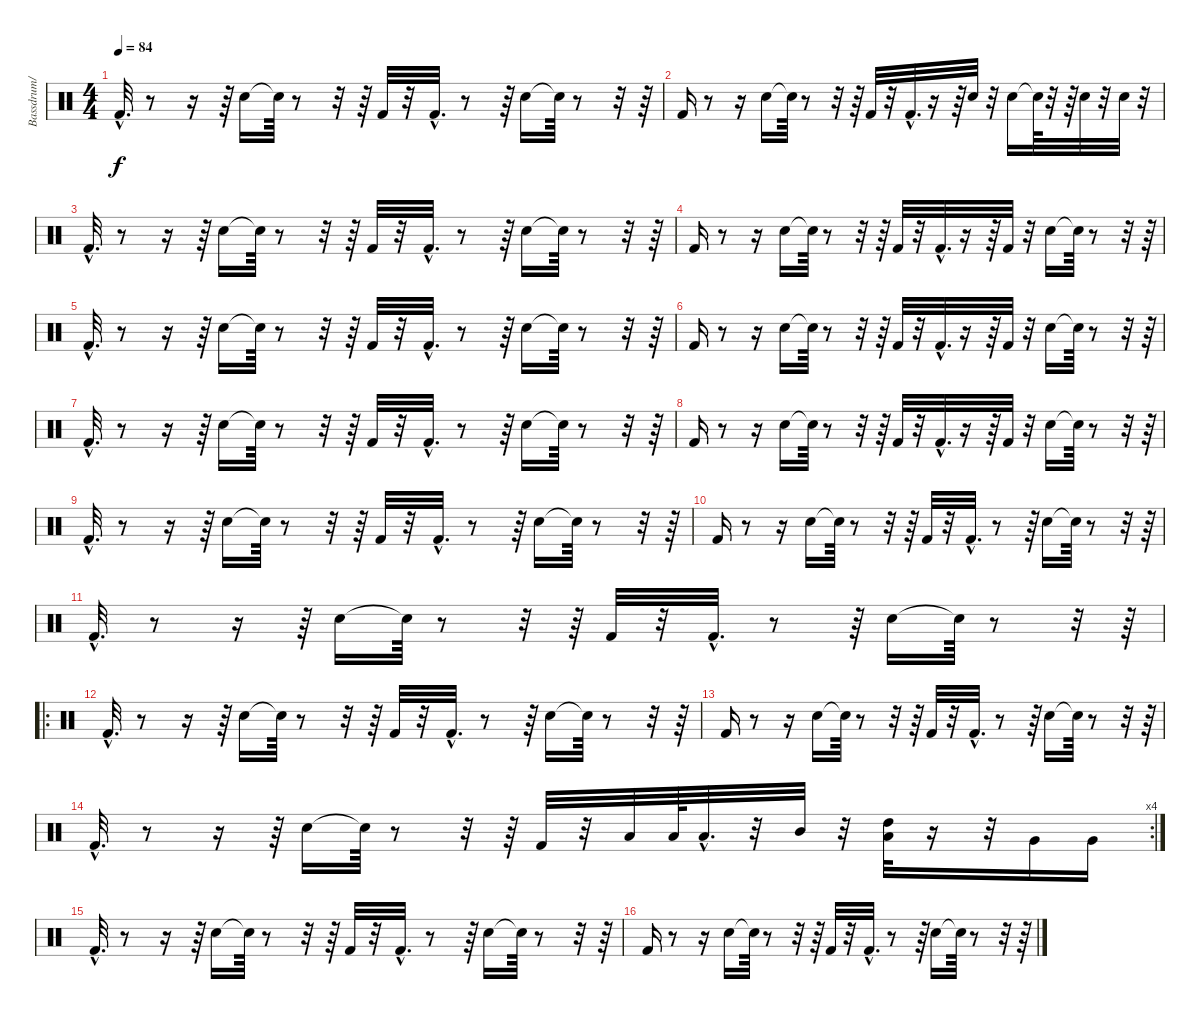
\track ("Bassdrum/" "Bassdrum/") {instrument percussion}
\staff {score}
\articulation defaults
\ts (4 4)
\tempo 84
\clef neutral
\ks c "Kick (hit) 2"{hac}.32{d dy f}
r.8 r.16 r.64 "Snare (hit) 2".16 "Snare (hit)"{t}.64 r.8 r.32 r.64 "Kick (hit) 2".32 r.32 "Kick (hit) 2"{hac}.32{d} r.8 r.64 "Snare (hit) 2".16 "Snare (hit)"{t}.64 r.8 r.32 r.64 |
"Kick (hit) 2".16 r.8 r.16 "Snare (hit) 2".16 "Snare (hit)"{t}.64 r.8 r.32 r.64 "Kick (hit) 2".32 r.32 "Kick (hit) 2"{hac}.32{d} r.16 r.64 "Electric Snare (hit)".32 r.32 "Electric Snare (hit)".16 "Snare (hit)"{t}.64 r.32 r.64 "Electric Snare (hit)".32 r.32 "Electric Snare (hit)".32 r.32 |
"Kick (hit) 2"{hac}.32{d} r.8 r.16 r.64 "Snare (hit) 2".16 "Snare (hit)"{t}.64 r.8 r.32 r.64 "Kick (hit) 2".32 r.32 "Kick (hit) 2"{hac}.32{d} r.8 r.64 "Snare (hit) 2".16 "Snare (hit)"{t}.64 r.8 r.32 r.64 |
"Kick (hit) 2".16 r.8 r.16 "Snare (hit) 2".16 "Snare (hit)"{t}.64 r.8 r.32 r.64 "Kick (hit) 2".32 r.32 "Kick (hit) 2"{hac}.32{d} r.16 r.64 "Kick (hit) 2".32 r.32 "Snare (hit) 2".16 "Snare (hit)"{t}.64 r.8 r.32 r.64 |
"Kick (hit) 2"{hac}.32{d} r.8 r.16 r.64 "Snare (hit) 2".16 "Snare (hit)"{t}.64 r.8 r.32 r.64 "Kick (hit) 2".32 r.32 "Kick (hit) 2"{hac}.32{d} r.8 r.64 "Snare (hit) 2".16 "Snare (hit)"{t}.64 r.8 r.32 r.64 |
"Kick (hit) 2".16 r.8 r.16 "Snare (hit) 2".16 "Snare (hit)"{t}.64 r.8 r.32 r.64 "Kick (hit) 2".32 r.32 "Kick (hit) 2"{hac}.32{d} r.16 r.64 "Kick (hit) 2".32 r.32 "Snare (hit) 2".16 "Snare (hit)"{t}.64 r.8 r.32 r.64 |
"Kick (hit) 2"{hac}.32{d} r.8 r.16 r.64 "Snare (hit) 2".16 "Snare (hit)"{t}.64 r.8 r.32 r.64 "Kick (hit) 2".32 r.32 "Kick (hit) 2"{hac}.32{d} r.8 r.64 "Snare (hit) 2".16 "Snare (hit)"{t}.64 r.8 r.32 r.64 |
"Kick (hit) 2".16 r.8 r.16 "Snare (hit) 2".16 "Snare (hit)"{t}.64 r.8 r.32 r.64 "Kick (hit) 2".32 r.32 "Kick (hit) 2"{hac}.32{d} r.16 r.64 "Kick (hit) 2".32 r.32 "Snare (hit) 2".16 "Snare (hit)"{t}.64 r.8 r.32 r.64 |
"Kick (hit) 2"{hac}.32{d} r.8 r.16 r.64 "Snare (hit) 2".16 "Snare (hit)"{t}.64 r.8 r.32 r.64 "Kick (hit) 2".32 r.32 "Kick (hit) 2"{hac}.32{d} r.8 r.64 "Snare (hit) 2".16 "Snare (hit)"{t}.64 r.8 r.32 r.64 |
"Kick (hit) 2".16 r.8 r.16 "Snare (hit) 2".16 "Snare (hit)"{t}.64 r.8 r.32 r.64 "Kick (hit) 2".32 r.32 "Kick (hit) 2"{hac}.32{d} r.8 r.64 "Snare (hit) 2".16 "Snare (hit)"{t}.64 r.8 r.32 r.64 |
"Kick (hit) 2"{hac}.32{d} r.8 r.16 r.64 "Snare (hit) 2".16 "Snare (hit)"{t}.64 r.8 r.32 r.64 "Kick (hit) 2".32 r.32 "Kick (hit) 2"{hac}.32{d} r.8 r.64 "Snare (hit) 2".16 "Snare (hit)"{t}.64 r.8 r.32 r.64 |
\ro "Kick (hit) 2"{hac}.32{d}
r.8 r.16 r.64 "Snare (hit) 2".16 "Snare (hit)"{t}.64 r.8 r.32 r.64 "Kick (hit) 2".32 r.32 "Kick (hit) 2"{hac}.32{d} r.8 r.64 "Snare (hit) 2".16 "Snare (hit)"{t}.64 r.8 r.32 r.64 |
"Kick (hit) 2".16 r.8 r.16 "Snare (hit) 2".16 "Snare (hit)"{t}.64 r.8 r.32 r.64 "Kick (hit) 2".32 r.32 "Kick (hit) 2"{hac}.32{d} r.8 r.64 "Snare (hit) 2".16 "Snare (hit)"{t}.64 r.8 r.32 r.64 |
\rc 4 "Kick (hit) 2"{hac}.32{d}
r.8 r.16 r.64 "Snare (hit) 2".16 "Snare (hit)"{t}.64 r.8 r.32 r.64 "Kick (hit) 2".32 r.32 "Low Tom (hit)".32 "Low Tom (hit)".64 "Low Tom (hit)"{hac}.32{d} r.32 "Mid Tom (hit)".32 r.32 ("Low Floor Tom (hit)" "High Tom (hit)").32 r.16 r.32 "Very Low Tom (hit)".16 "Very Low Tom (hit)".16 |
"Kick (hit) 2"{hac}.32{d} r.8 r.16 r.64 "Snare (hit) 2".16 "Snare (hit)"{t}.64 r.8 r.32 r.64 "Kick (hit) 2".32 r.32 "Kick (hit) 2"{hac}.32{d} r.8 r.64 "Snare (hit) 2".16 "Snare (hit)"{t}.64 r.8 r.32 r.64 |
"Kick (hit) 2".16 r.8 r.16 "Snare (hit) 2".16 "Snare (hit)"{t}.64 r.8 r.32 r.64 "Kick (hit) 2".32 r.32 "Kick (hit) 2"{hac}.32{d} r.8 r.64 "Snare (hit) 2".16 "Snare (hit)"{t}.64 r.8 r.32 r.64
